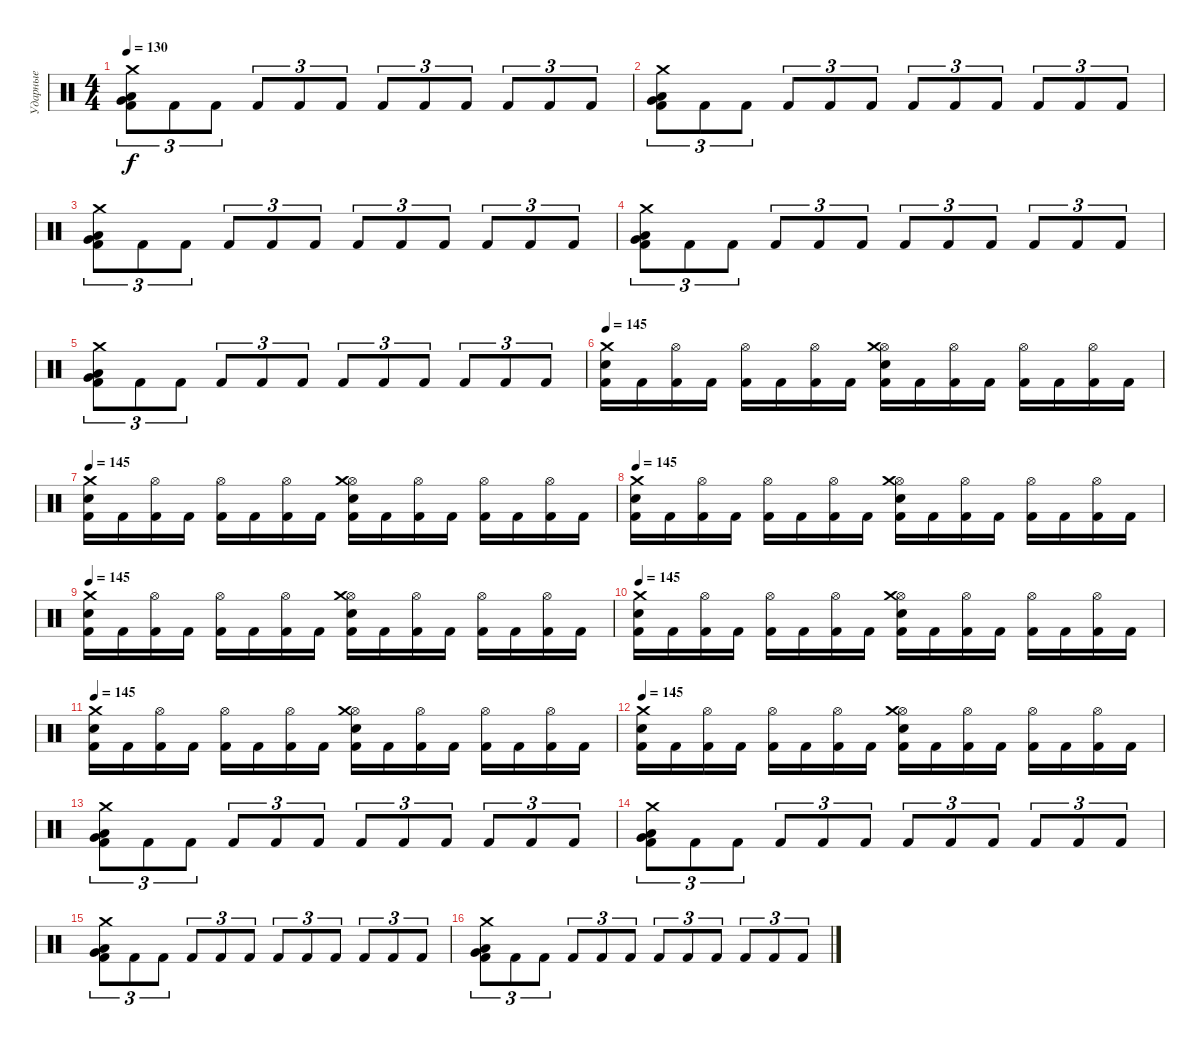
\track ("Ударные" "Ударные") {instrument percussion}
\staff {score}
\articulation defaults
\ts (4 4)
\tempo 130
\clef neutral
\ks c
("Crash medium (hit)" "Low Floor Tom (hit)" "Kick (hit) 2" "Very Low Tom (hit)").8{tu (3 2) dy f} "Kick (hit) 2".8{tu (3 2)} "Kick (hit) 2".8{tu (3 2)} "Kick (hit) 2".8{tu (3 2)} "Kick (hit) 2".8{tu (3 2)} "Kick (hit) 2".8{tu (3 2)} "Kick (hit) 2".8{tu (3 2)} "Kick (hit) 2".8{tu (3 2)} "Kick (hit) 2".8{tu (3 2)} "Kick (hit) 2".8{tu (3 2)} "Kick (hit) 2".8{tu (3 2)} "Kick (hit) 2".8{tu (3 2)} |
("Crash medium (hit)" "Low Floor Tom (hit)" "Kick (hit) 2" "Very Low Tom (hit)").8{tu (3 2)} "Kick (hit) 2".8{tu (3 2)} "Kick (hit) 2".8{tu (3 2)} "Kick (hit) 2".8{tu (3 2)} "Kick (hit) 2".8{tu (3 2)} "Kick (hit) 2".8{tu (3 2)} "Kick (hit) 2".8{tu (3 2)} "Kick (hit) 2".8{tu (3 2)} "Kick (hit) 2".8{tu (3 2)} "Kick (hit) 2".8{tu (3 2)} "Kick (hit) 2".8{tu (3 2)} "Kick (hit) 2".8{tu (3 2)} |
("Crash medium (hit)" "Low Floor Tom (hit)" "Kick (hit) 2" "Very Low Tom (hit)").8{tu (3 2)} "Kick (hit) 2".8{tu (3 2)} "Kick (hit) 2".8{tu (3 2)} "Kick (hit) 2".8{tu (3 2)} "Kick (hit) 2".8{tu (3 2)} "Kick (hit) 2".8{tu (3 2)} "Kick (hit) 2".8{tu (3 2)} "Kick (hit) 2".8{tu (3 2)} "Kick (hit) 2".8{tu (3 2)} "Kick (hit) 2".8{tu (3 2)} "Kick (hit) 2".8{tu (3 2)} "Kick (hit) 2".8{tu (3 2)} |
("Crash medium (hit)" "Low Floor Tom (hit)" "Kick (hit) 2" "Very Low Tom (hit)").8{tu (3 2)} "Kick (hit) 2".8{tu (3 2)} "Kick (hit) 2".8{tu (3 2)} "Kick (hit) 2".8{tu (3 2)} "Kick (hit) 2".8{tu (3 2)} "Kick (hit) 2".8{tu (3 2)} "Kick (hit) 2".8{tu (3 2)} "Kick (hit) 2".8{tu (3 2)} "Kick (hit) 2".8{tu (3 2)} "Kick (hit) 2".8{tu (3 2)} "Kick (hit) 2".8{tu (3 2)} "Kick (hit) 2".8{tu (3 2)} |
("Crash medium (hit)" "Low Floor Tom (hit)" "Kick (hit) 2" "Very Low Tom (hit)").8{tu (3 2)} "Kick (hit) 2".8{tu (3 2)} "Kick (hit) 2".8{tu (3 2)} "Kick (hit) 2".8{tu (3 2)} "Kick (hit) 2".8{tu (3 2)} "Kick (hit) 2".8{tu (3 2)} "Kick (hit) 2".8{tu (3 2)} "Kick (hit) 2".8{tu (3 2)} "Kick (hit) 2".8{tu (3 2)} "Kick (hit) 2".8{tu (3 2)} "Kick (hit) 2".8{tu (3 2)} "Kick (hit) 2".8{tu (3 2)} |
\tempo 145
("Kick (hit) 2" "Electric Snare (hit)" "Crash medium (hit)").16 "Kick (hit) 2".16 ("Kick (hit) 2" "Hi-Hat (open)").16 "Kick (hit) 2".16 ("Kick (hit) 2" "Hi-Hat (open)").16 "Kick (hit) 2".16 ("Kick (hit) 2" "Hi-Hat (open)").16 "Kick (hit) 2".16 ("Kick (hit) 2" "Electric Snare (hit)" "Hi-Hat (open)" "Crash medium (hit)").16 "Kick (hit) 2".16 ("Kick (hit) 2" "Hi-Hat (open)").16 "Kick (hit) 2".16 ("Kick (hit) 2" "Hi-Hat (open)").16 "Kick (hit) 2".16 ("Kick (hit) 2" "Hi-Hat (open)").16 "Kick (hit) 2".16 |
\tempo 145
("Kick (hit) 2" "Electric Snare (hit)" "Crash medium (hit)").16 "Kick (hit) 2".16 ("Kick (hit) 2" "Hi-Hat (open)").16 "Kick (hit) 2".16 ("Kick (hit) 2" "Hi-Hat (open)").16 "Kick (hit) 2".16 ("Kick (hit) 2" "Hi-Hat (open)").16 "Kick (hit) 2".16 ("Kick (hit) 2" "Electric Snare (hit)" "Hi-Hat (open)" "Crash medium (hit)").16 "Kick (hit) 2".16 ("Kick (hit) 2" "Hi-Hat (open)").16 "Kick (hit) 2".16 ("Kick (hit) 2" "Hi-Hat (open)").16 "Kick (hit) 2".16 ("Kick (hit) 2" "Hi-Hat (open)").16 "Kick (hit) 2".16 |
\tempo 145
("Kick (hit) 2" "Electric Snare (hit)" "Crash medium (hit)").16 "Kick (hit) 2".16 ("Kick (hit) 2" "Hi-Hat (open)").16 "Kick (hit) 2".16 ("Kick (hit) 2" "Hi-Hat (open)").16 "Kick (hit) 2".16 ("Kick (hit) 2" "Hi-Hat (open)").16 "Kick (hit) 2".16 ("Kick (hit) 2" "Electric Snare (hit)" "Hi-Hat (open)" "Crash medium (hit)").16 "Kick (hit) 2".16 ("Kick (hit) 2" "Hi-Hat (open)").16 "Kick (hit) 2".16 ("Kick (hit) 2" "Hi-Hat (open)").16 "Kick (hit) 2".16 ("Kick (hit) 2" "Hi-Hat (open)").16 "Kick (hit) 2".16 |
\tempo 145
("Kick (hit) 2" "Electric Snare (hit)" "Crash medium (hit)").16 "Kick (hit) 2".16 ("Kick (hit) 2" "Hi-Hat (open)").16 "Kick (hit) 2".16 ("Kick (hit) 2" "Hi-Hat (open)").16 "Kick (hit) 2".16 ("Kick (hit) 2" "Hi-Hat (open)").16 "Kick (hit) 2".16 ("Kick (hit) 2" "Electric Snare (hit)" "Hi-Hat (open)" "Crash medium (hit)").16 "Kick (hit) 2".16 ("Kick (hit) 2" "Hi-Hat (open)").16 "Kick (hit) 2".16 ("Kick (hit) 2" "Hi-Hat (open)").16 "Kick (hit) 2".16 ("Kick (hit) 2" "Hi-Hat (open)").16 "Kick (hit) 2".16 |
\tempo 145
("Kick (hit) 2" "Electric Snare (hit)" "Crash medium (hit)").16 "Kick (hit) 2".16 ("Kick (hit) 2" "Hi-Hat (open)").16 "Kick (hit) 2".16 ("Kick (hit) 2" "Hi-Hat (open)").16 "Kick (hit) 2".16 ("Kick (hit) 2" "Hi-Hat (open)").16 "Kick (hit) 2".16 ("Kick (hit) 2" "Electric Snare (hit)" "Hi-Hat (open)" "Crash medium (hit)").16 "Kick (hit) 2".16 ("Kick (hit) 2" "Hi-Hat (open)").16 "Kick (hit) 2".16 ("Kick (hit) 2" "Hi-Hat (open)").16 "Kick (hit) 2".16 ("Kick (hit) 2" "Hi-Hat (open)").16 "Kick (hit) 2".16 |
\tempo 145
("Kick (hit) 2" "Electric Snare (hit)" "Crash medium (hit)").16 "Kick (hit) 2".16 ("Kick (hit) 2" "Hi-Hat (open)").16 "Kick (hit) 2".16 ("Kick (hit) 2" "Hi-Hat (open)").16 "Kick (hit) 2".16 ("Kick (hit) 2" "Hi-Hat (open)").16 "Kick (hit) 2".16 ("Kick (hit) 2" "Electric Snare (hit)" "Hi-Hat (open)" "Crash medium (hit)").16 "Kick (hit) 2".16 ("Kick (hit) 2" "Hi-Hat (open)").16 "Kick (hit) 2".16 ("Kick (hit) 2" "Hi-Hat (open)").16 "Kick (hit) 2".16 ("Kick (hit) 2" "Hi-Hat (open)").16 "Kick (hit) 2".16 |
\tempo 145
("Kick (hit) 2" "Electric Snare (hit)" "Crash medium (hit)").16 "Kick (hit) 2".16 ("Kick (hit) 2" "Hi-Hat (open)").16 "Kick (hit) 2".16 ("Kick (hit) 2" "Hi-Hat (open)").16 "Kick (hit) 2".16 ("Kick (hit) 2" "Hi-Hat (open)").16 "Kick (hit) 2".16 ("Kick (hit) 2" "Electric Snare (hit)" "Hi-Hat (open)" "Crash medium (hit)").16 "Kick (hit) 2".16 ("Kick (hit) 2" "Hi-Hat (open)").16 "Kick (hit) 2".16 ("Kick (hit) 2" "Hi-Hat (open)").16 "Kick (hit) 2".16 ("Kick (hit) 2" "Hi-Hat (open)").16 "Kick (hit) 2".16 |
("Crash medium (hit)" "Low Floor Tom (hit)" "Kick (hit) 2" "Very Low Tom (hit)").8{tu (3 2)} "Kick (hit) 2".8{tu (3 2)} "Kick (hit) 2".8{tu (3 2)} "Kick (hit) 2".8{tu (3 2)} "Kick (hit) 2".8{tu (3 2)} "Kick (hit) 2".8{tu (3 2)} "Kick (hit) 2".8{tu (3 2)} "Kick (hit) 2".8{tu (3 2)} "Kick (hit) 2".8{tu (3 2)} "Kick (hit) 2".8{tu (3 2)} "Kick (hit) 2".8{tu (3 2)} "Kick (hit) 2".8{tu (3 2)} |
("Crash medium (hit)" "Low Floor Tom (hit)" "Kick (hit) 2" "Very Low Tom (hit)").8{tu (3 2)} "Kick (hit) 2".8{tu (3 2)} "Kick (hit) 2".8{tu (3 2)} "Kick (hit) 2".8{tu (3 2)} "Kick (hit) 2".8{tu (3 2)} "Kick (hit) 2".8{tu (3 2)} "Kick (hit) 2".8{tu (3 2)} "Kick (hit) 2".8{tu (3 2)} "Kick (hit) 2".8{tu (3 2)} "Kick (hit) 2".8{tu (3 2)} "Kick (hit) 2".8{tu (3 2)} "Kick (hit) 2".8{tu (3 2)} |
("Crash medium (hit)" "Low Floor Tom (hit)" "Kick (hit) 2" "Very Low Tom (hit)").8{tu (3 2)} "Kick (hit) 2".8{tu (3 2)} "Kick (hit) 2".8{tu (3 2)} "Kick (hit) 2".8{tu (3 2)} "Kick (hit) 2".8{tu (3 2)} "Kick (hit) 2".8{tu (3 2)} "Kick (hit) 2".8{tu (3 2)} "Kick (hit) 2".8{tu (3 2)} "Kick (hit) 2".8{tu (3 2)} "Kick (hit) 2".8{tu (3 2)} "Kick (hit) 2".8{tu (3 2)} "Kick (hit) 2".8{tu (3 2)} |
("Crash medium (hit)" "Low Floor Tom (hit)" "Kick (hit) 2" "Very Low Tom (hit)").8{tu (3 2)} "Kick (hit) 2".8{tu (3 2)} "Kick (hit) 2".8{tu (3 2)} "Kick (hit) 2".8{tu (3 2)} "Kick (hit) 2".8{tu (3 2)} "Kick (hit) 2".8{tu (3 2)} "Kick (hit) 2".8{tu (3 2)} "Kick (hit) 2".8{tu (3 2)} "Kick (hit) 2".8{tu (3 2)} "Kick (hit) 2".8{tu (3 2)} "Kick (hit) 2".8{tu (3 2)} "Kick (hit) 2".8{tu (3 2)}
